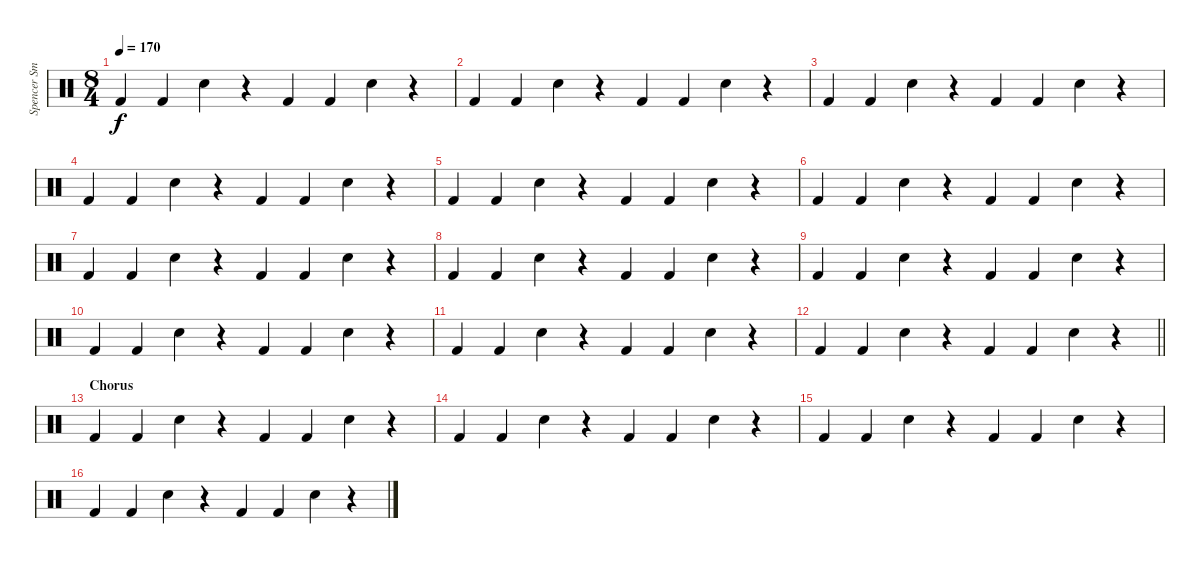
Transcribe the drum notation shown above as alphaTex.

\track ("Spencer Smith" "Spencer Sm") {instrument percussion}
\staff {score}
\articulation defaults
\ts (8 4)
\tempo 170
\clef neutral
\ks c "Kick (hit) 2".4{dy f} "Kick (hit) 2".4 "Snare (hit) 2".4
r.4 "Kick (hit) 2".4 "Kick (hit) 2".4 "Snare (hit) 2".4 r.4 |
"Kick (hit) 2".4 "Kick (hit) 2".4 "Snare (hit) 2".4 r.4 "Kick (hit) 2".4 "Kick (hit) 2".4 "Snare (hit) 2".4 r.4 |
"Kick (hit) 2".4 "Kick (hit) 2".4 "Snare (hit) 2".4 r.4 "Kick (hit) 2".4 "Kick (hit) 2".4 "Snare (hit) 2".4 r.4 |
"Kick (hit) 2".4 "Kick (hit) 2".4 "Snare (hit) 2".4 r.4 "Kick (hit) 2".4 "Kick (hit) 2".4 "Snare (hit) 2".4 r.4 |
"Kick (hit) 2".4 "Kick (hit) 2".4 "Snare (hit) 2".4 r.4 "Kick (hit) 2".4 "Kick (hit) 2".4 "Snare (hit) 2".4 r.4 |
"Kick (hit) 2".4 "Kick (hit) 2".4 "Snare (hit) 2".4 r.4 "Kick (hit) 2".4 "Kick (hit) 2".4 "Snare (hit) 2".4 r.4 |
"Kick (hit) 2".4 "Kick (hit) 2".4 "Snare (hit) 2".4 r.4 "Kick (hit) 2".4 "Kick (hit) 2".4 "Snare (hit) 2".4 r.4 |
"Kick (hit) 2".4 "Kick (hit) 2".4 "Snare (hit) 2".4 r.4 "Kick (hit) 2".4 "Kick (hit) 2".4 "Snare (hit) 2".4 r.4 |
"Kick (hit) 2".4 "Kick (hit) 2".4 "Snare (hit) 2".4 r.4 "Kick (hit) 2".4 "Kick (hit) 2".4 "Snare (hit) 2".4 r.4 |
"Kick (hit) 2".4 "Kick (hit) 2".4 "Snare (hit) 2".4 r.4 "Kick (hit) 2".4 "Kick (hit) 2".4 "Snare (hit) 2".4 r.4 |
"Kick (hit) 2".4 "Kick (hit) 2".4 "Snare (hit) 2".4 r.4 "Kick (hit) 2".4 "Kick (hit) 2".4 "Snare (hit) 2".4 r.4 |
\barLineRight lightlight "Kick (hit) 2".4 "Kick (hit) 2".4 "Snare (hit) 2".4
r.4 "Kick (hit) 2".4 "Kick (hit) 2".4 "Snare (hit) 2".4 r.4 |
\section ("" "Chorus")
"Kick (hit) 2".4 "Kick (hit) 2".4 "Snare (hit) 2".4 r.4 "Kick (hit) 2".4 "Kick (hit) 2".4 "Snare (hit) 2".4 r.4 |
"Kick (hit) 2".4 "Kick (hit) 2".4 "Snare (hit) 2".4 r.4 "Kick (hit) 2".4 "Kick (hit) 2".4 "Snare (hit) 2".4 r.4 |
"Kick (hit) 2".4 "Kick (hit) 2".4 "Snare (hit) 2".4 r.4 "Kick (hit) 2".4 "Kick (hit) 2".4 "Snare (hit) 2".4 r.4 |
"Kick (hit) 2".4 "Kick (hit) 2".4 "Snare (hit) 2".4 r.4 "Kick (hit) 2".4 "Kick (hit) 2".4 "Snare (hit) 2".4 r.4
